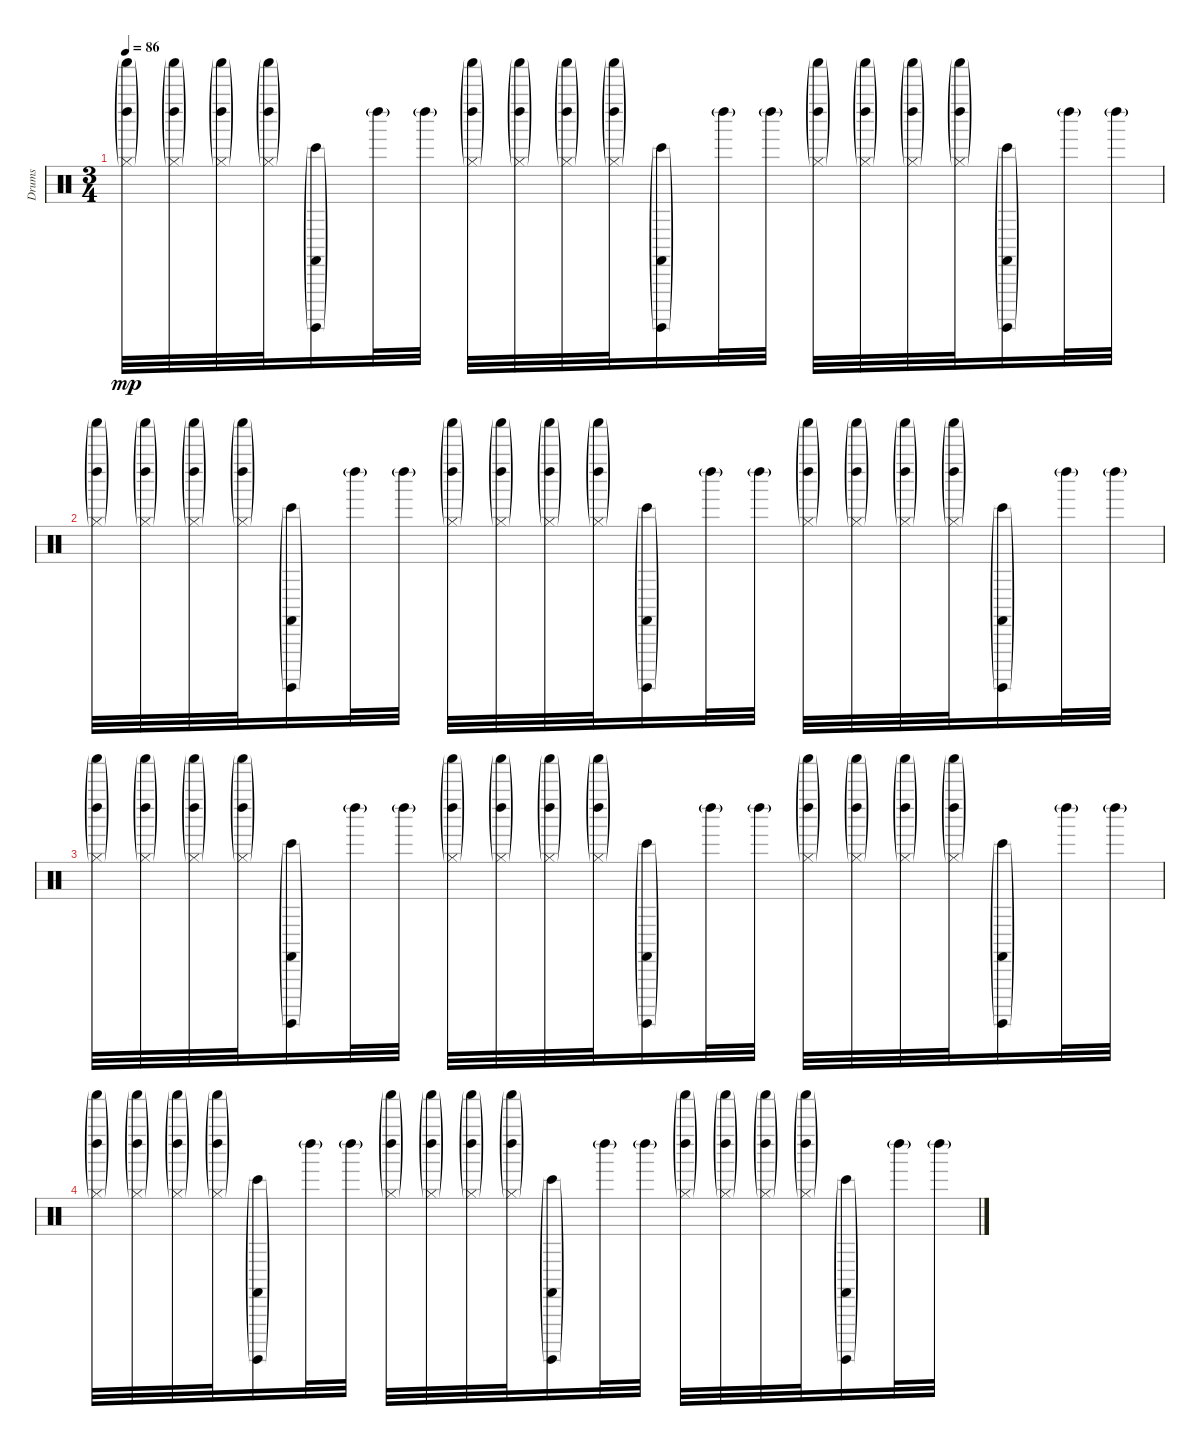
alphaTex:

\track ("Drums" "Drums") {instrument percussion}
\staff {score}
\articulation defaults
\ts (3 4)
\tempo 86
\clef neutral
\ks c
("Shaker (hit)"{g} "Left Maraca (hit)"{g} "Hi-Hat (closed)"{g}).32{dy mp} ("Shaker (hit)"{g} "Left Maraca (hit)"{g} "Hi-Hat (closed)"{g}).32 ("Shaker (hit)"{g} "Left Maraca (hit)"{g} "Hi-Hat (closed)"{g}).32 ("Shaker (hit)"{g} "Left Maraca (hit)"{g} "Hi-Hat (closed)"{g}).32 ("Castanets (hit)"{g} "Surdo (hit)"{g} "Bongo High (hit)"{g}).16 "Left Maraca (hit)"{g}.32 "Left Maraca (hit)"{g}.32 ("Shaker (hit)"{g} "Left Maraca (hit)"{g} "Hi-Hat (closed)"{g}).32 ("Shaker (hit)"{g} "Left Maraca (hit)"{g} "Hi-Hat (closed)"{g}).32 ("Shaker (hit)"{g} "Left Maraca (hit)"{g} "Hi-Hat (closed)"{g}).32 ("Shaker (hit)"{g} "Left Maraca (hit)"{g} "Hi-Hat (closed)"{g}).32 ("Castanets (hit)"{g} "Surdo (hit)"{g} "Bongo High (hit)"{g}).16 "Left Maraca (hit)"{g}.32 "Left Maraca (hit)"{g}.32 ("Shaker (hit)"{g} "Left Maraca (hit)"{g} "Hi-Hat (closed)"{g}).32 ("Shaker (hit)"{g} "Left Maraca (hit)"{g} "Hi-Hat (closed)"{g}).32 ("Shaker (hit)"{g} "Left Maraca (hit)"{g} "Hi-Hat (closed)"{g}).32 ("Shaker (hit)"{g} "Left Maraca (hit)"{g} "Hi-Hat (closed)"{g}).32 ("Castanets (hit)"{g} "Surdo (hit)"{g} "Bongo High (hit)"{g}).16 "Left Maraca (hit)"{g}.32 "Left Maraca (hit)"{g}.32 |
("Shaker (hit)"{g} "Left Maraca (hit)"{g} "Hi-Hat (closed)"{g}).32 ("Shaker (hit)"{g} "Left Maraca (hit)"{g} "Hi-Hat (closed)"{g}).32 ("Shaker (hit)"{g} "Left Maraca (hit)"{g} "Hi-Hat (closed)"{g}).32 ("Shaker (hit)"{g} "Left Maraca (hit)"{g} "Hi-Hat (closed)"{g}).32 ("Castanets (hit)"{g} "Surdo (hit)"{g} "Bongo High (hit)"{g}).16 "Left Maraca (hit)"{g}.32 "Left Maraca (hit)"{g}.32 ("Shaker (hit)"{g} "Left Maraca (hit)"{g} "Hi-Hat (closed)"{g}).32 ("Shaker (hit)"{g} "Left Maraca (hit)"{g} "Hi-Hat (closed)"{g}).32 ("Shaker (hit)"{g} "Left Maraca (hit)"{g} "Hi-Hat (closed)"{g}).32 ("Shaker (hit)"{g} "Left Maraca (hit)"{g} "Hi-Hat (closed)"{g}).32 ("Castanets (hit)"{g} "Surdo (hit)"{g} "Bongo High (hit)"{g}).16 "Left Maraca (hit)"{g}.32 "Left Maraca (hit)"{g}.32 ("Shaker (hit)"{g} "Left Maraca (hit)"{g} "Hi-Hat (closed)"{g}).32 ("Shaker (hit)"{g} "Left Maraca (hit)"{g} "Hi-Hat (closed)"{g}).32 ("Shaker (hit)"{g} "Left Maraca (hit)"{g} "Hi-Hat (closed)"{g}).32 ("Shaker (hit)"{g} "Left Maraca (hit)"{g} "Hi-Hat (closed)"{g}).32 ("Castanets (hit)"{g} "Surdo (hit)"{g} "Bongo High (hit)"{g}).16 "Left Maraca (hit)"{g}.32 "Left Maraca (hit)"{g}.32 |
("Shaker (hit)"{g} "Left Maraca (hit)"{g} "Hi-Hat (closed)"{g}).32 ("Shaker (hit)"{g} "Left Maraca (hit)"{g} "Hi-Hat (closed)"{g}).32 ("Shaker (hit)"{g} "Left Maraca (hit)"{g} "Hi-Hat (closed)"{g}).32 ("Shaker (hit)"{g} "Left Maraca (hit)"{g} "Hi-Hat (closed)"{g}).32 ("Castanets (hit)"{g} "Surdo (hit)"{g} "Bongo High (hit)"{g}).16 "Left Maraca (hit)"{g}.32 "Left Maraca (hit)"{g}.32 ("Shaker (hit)"{g} "Left Maraca (hit)"{g} "Hi-Hat (closed)"{g}).32 ("Shaker (hit)"{g} "Left Maraca (hit)"{g} "Hi-Hat (closed)"{g}).32 ("Shaker (hit)"{g} "Left Maraca (hit)"{g} "Hi-Hat (closed)"{g}).32 ("Shaker (hit)"{g} "Left Maraca (hit)"{g} "Hi-Hat (closed)"{g}).32 ("Castanets (hit)"{g} "Surdo (hit)"{g} "Bongo High (hit)"{g}).16 "Left Maraca (hit)"{g}.32 "Left Maraca (hit)"{g}.32 ("Shaker (hit)"{g} "Left Maraca (hit)"{g} "Hi-Hat (closed)"{g}).32 ("Shaker (hit)"{g} "Left Maraca (hit)"{g} "Hi-Hat (closed)"{g}).32 ("Shaker (hit)"{g} "Left Maraca (hit)"{g} "Hi-Hat (closed)"{g}).32 ("Shaker (hit)"{g} "Left Maraca (hit)"{g} "Hi-Hat (closed)"{g}).32 ("Castanets (hit)"{g} "Surdo (hit)"{g} "Bongo High (hit)"{g}).16 "Left Maraca (hit)"{g}.32 "Left Maraca (hit)"{g}.32 |
("Shaker (hit)"{g} "Left Maraca (hit)"{g} "Hi-Hat (closed)"{g}).32 ("Shaker (hit)"{g} "Left Maraca (hit)"{g} "Hi-Hat (closed)"{g}).32 ("Shaker (hit)"{g} "Left Maraca (hit)"{g} "Hi-Hat (closed)"{g}).32 ("Shaker (hit)"{g} "Left Maraca (hit)"{g} "Hi-Hat (closed)"{g}).32 ("Castanets (hit)"{g} "Surdo (hit)"{g} "Bongo High (hit)"{g}).16 "Left Maraca (hit)"{g}.32 "Left Maraca (hit)"{g}.32 ("Shaker (hit)"{g} "Left Maraca (hit)"{g} "Hi-Hat (closed)"{g}).32 ("Shaker (hit)"{g} "Left Maraca (hit)"{g} "Hi-Hat (closed)"{g}).32 ("Shaker (hit)"{g} "Left Maraca (hit)"{g} "Hi-Hat (closed)"{g}).32 ("Shaker (hit)"{g} "Left Maraca (hit)"{g} "Hi-Hat (closed)"{g}).32 ("Castanets (hit)"{g} "Surdo (hit)"{g} "Bongo High (hit)"{g}).16 "Left Maraca (hit)"{g}.32 "Left Maraca (hit)"{g}.32 ("Shaker (hit)"{g} "Left Maraca (hit)"{g} "Hi-Hat (closed)"{g}).32 ("Shaker (hit)"{g} "Left Maraca (hit)"{g} "Hi-Hat (closed)"{g}).32 ("Shaker (hit)"{g} "Left Maraca (hit)"{g} "Hi-Hat (closed)"{g}).32 ("Shaker (hit)"{g} "Left Maraca (hit)"{g} "Hi-Hat (closed)"{g}).32 ("Castanets (hit)"{g} "Surdo (hit)"{g} "Bongo High (hit)"{g}).16 "Left Maraca (hit)"{g}.32 "Left Maraca (hit)"{g}.32
